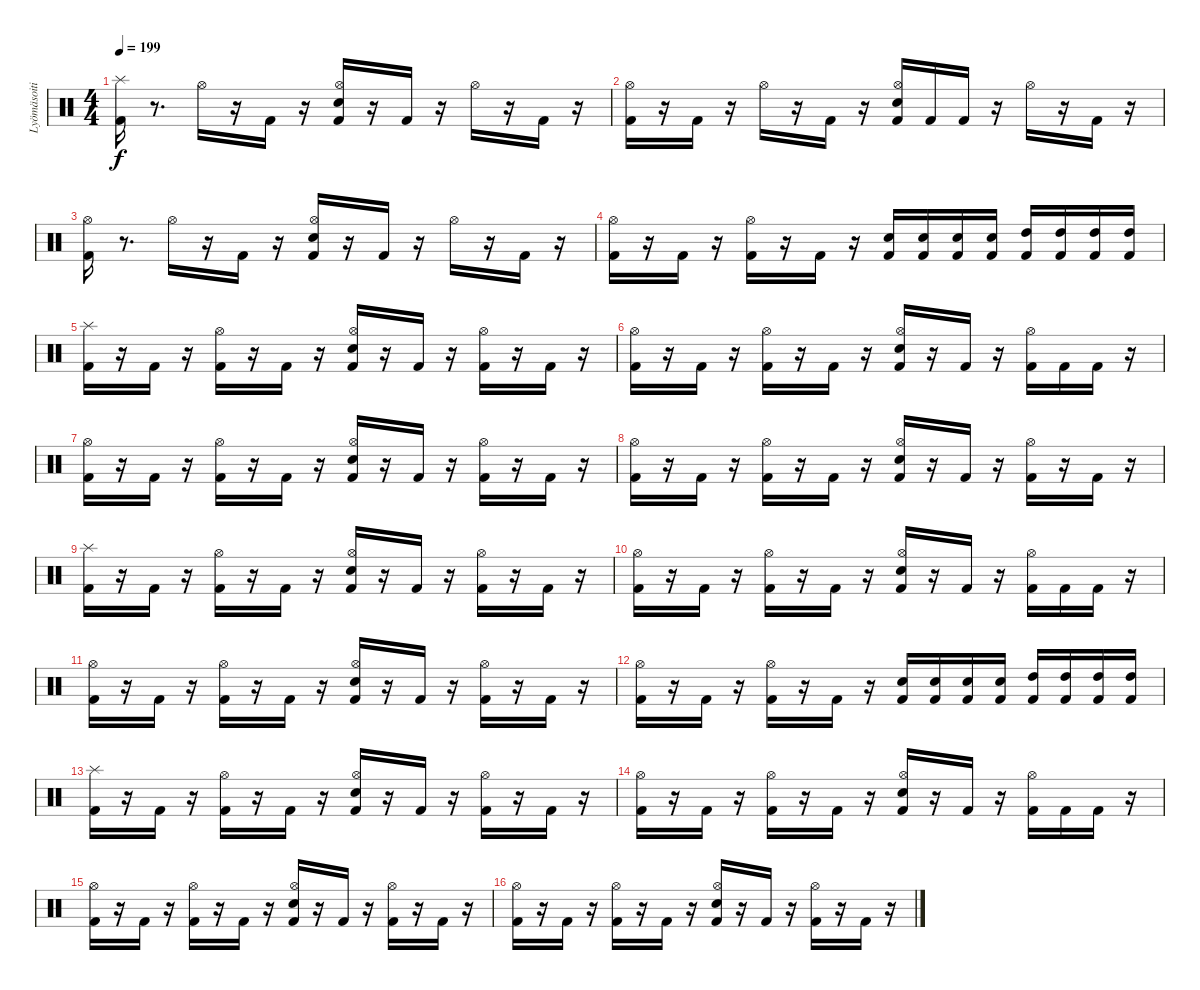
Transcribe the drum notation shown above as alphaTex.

\track ("Lyömäsoitin" "Lyömäsoiti") {instrument percussion}
\staff {score}
\articulation defaults
\ts (4 4)
\tempo 199
\clef neutral
\ks c
("Kick (hit) 2" "Splash (hit)").16{dy f} r.8{d} "Hi-Hat (open)".16 r.16 "Kick (hit) 2".16 r.16 ("Kick (hit) 2" "Hi-Hat (open)" "Snare (hit) 2").16 r.16 "Kick (hit) 2".16 r.16 "Hi-Hat (open)".16 r.16 "Kick (hit) 2".16 r.16 |
("Kick (hit) 2" "Hi-Hat (open)").16 r.16 "Kick (hit) 2".16 r.16 "Hi-Hat (open)".16 r.16 "Kick (hit) 2".16 r.16 ("Kick (hit) 2" "Hi-Hat (open)" "Snare (hit) 2").16 "Kick (hit) 2".16 "Kick (hit) 2".16 r.16 "Hi-Hat (open)".16 r.16 "Kick (hit) 2".16 r.16 |
("Kick (hit) 2" "Hi-Hat (open)").16 r.8{d} "Hi-Hat (open)".16 r.16 "Kick (hit) 2".16 r.16 ("Kick (hit) 2" "Hi-Hat (open)" "Snare (hit) 2").16 r.16 "Kick (hit) 2".16 r.16 "Hi-Hat (open)".16 r.16 "Kick (hit) 2".16 r.16 |
("Kick (hit) 2" "Hi-Hat (open)").16 r.16 "Kick (hit) 2".16 r.16 ("Kick (hit) 2" "Hi-Hat (open)").16 r.16 "Kick (hit) 2".16 r.16 ("Kick (hit) 2" "Snare (hit) 2").16 ("Kick (hit) 2" "Snare (hit) 2").16 ("Kick (hit) 2" "Snare (hit) 2").16 ("Kick (hit) 2" "Snare (hit) 2").16 ("Kick (hit) 2" "High Tom (hit)").16 ("Kick (hit) 2" "High Tom (hit)").16 ("Kick (hit) 2" "High Tom (hit)").16 ("Kick (hit) 2" "High Tom (hit)").16 |
("Kick (hit) 2" "Splash (hit)").16 r.16 "Kick (hit) 2".16 r.16 ("Kick (hit) 2" "Hi-Hat (open)").16 r.16 "Kick (hit) 2".16 r.16 ("Kick (hit) 2" "Hi-Hat (open)" "Snare (hit) 2").16 r.16 "Kick (hit) 2".16 r.16 ("Kick (hit) 2" "Hi-Hat (open)").16 r.16 "Kick (hit) 2".16 r.16 |
("Kick (hit) 2" "Hi-Hat (open)").16 r.16 "Kick (hit) 2".16 r.16 ("Kick (hit) 2" "Hi-Hat (open)").16 r.16 "Kick (hit) 2".16 r.16 ("Kick (hit) 2" "Hi-Hat (open)" "Snare (hit) 2").16 r.16 "Kick (hit) 2".16 r.16 ("Kick (hit) 2" "Hi-Hat (open)").16 "Kick (hit) 2".16 "Kick (hit) 2".16 r.16 |
("Kick (hit) 2" "Hi-Hat (open)").16 r.16 "Kick (hit) 2".16 r.16 ("Kick (hit) 2" "Hi-Hat (open)").16 r.16 "Kick (hit) 2".16 r.16 ("Kick (hit) 2" "Hi-Hat (open)" "Snare (hit) 2").16 r.16 "Kick (hit) 2".16 r.16 ("Kick (hit) 2" "Hi-Hat (open)").16 r.16 "Kick (hit) 2".16 r.16 |
("Kick (hit) 2" "Hi-Hat (open)").16 r.16 "Kick (hit) 2".16 r.16 ("Kick (hit) 2" "Hi-Hat (open)").16 r.16 "Kick (hit) 2".16 r.16 ("Kick (hit) 2" "Hi-Hat (open)" "Snare (hit) 2").16 r.16 "Kick (hit) 2".16 r.16 ("Kick (hit) 2" "Hi-Hat (open)").16 r.16 "Kick (hit) 2".16 r.16 |
("Kick (hit) 2" "Splash (hit)").16 r.16 "Kick (hit) 2".16 r.16 ("Kick (hit) 2" "Hi-Hat (open)").16 r.16 "Kick (hit) 2".16 r.16 ("Kick (hit) 2" "Hi-Hat (open)" "Snare (hit) 2").16 r.16 "Kick (hit) 2".16 r.16 ("Kick (hit) 2" "Hi-Hat (open)").16 r.16 "Kick (hit) 2".16 r.16 |
("Kick (hit) 2" "Hi-Hat (open)").16 r.16 "Kick (hit) 2".16 r.16 ("Kick (hit) 2" "Hi-Hat (open)").16 r.16 "Kick (hit) 2".16 r.16 ("Kick (hit) 2" "Hi-Hat (open)" "Snare (hit) 2").16 r.16 "Kick (hit) 2".16 r.16 ("Kick (hit) 2" "Hi-Hat (open)").16 "Kick (hit) 2".16 "Kick (hit) 2".16 r.16 |
("Kick (hit) 2" "Hi-Hat (open)").16 r.16 "Kick (hit) 2".16 r.16 ("Kick (hit) 2" "Hi-Hat (open)").16 r.16 "Kick (hit) 2".16 r.16 ("Kick (hit) 2" "Hi-Hat (open)" "Snare (hit) 2").16 r.16 "Kick (hit) 2".16 r.16 ("Kick (hit) 2" "Hi-Hat (open)").16 r.16 "Kick (hit) 2".16 r.16 |
("Kick (hit) 2" "Hi-Hat (open)").16 r.16 "Kick (hit) 2".16 r.16 ("Kick (hit) 2" "Hi-Hat (open)").16 r.16 "Kick (hit) 2".16 r.16 ("Kick (hit) 2" "Snare (hit) 2").16 ("Kick (hit) 2" "Snare (hit) 2").16 ("Kick (hit) 2" "Snare (hit) 2").16 ("Kick (hit) 2" "Snare (hit) 2").16 ("Kick (hit) 2" "High Tom (hit)").16 ("Kick (hit) 2" "High Tom (hit)").16 ("Kick (hit) 2" "High Tom (hit)").16 ("Kick (hit) 2" "High Tom (hit)").16 |
("Kick (hit) 2" "Splash (hit)").16 r.16 "Kick (hit) 2".16 r.16 ("Kick (hit) 2" "Hi-Hat (open)").16 r.16 "Kick (hit) 2".16 r.16 ("Kick (hit) 2" "Hi-Hat (open)" "Snare (hit) 2").16 r.16 "Kick (hit) 2".16 r.16 ("Kick (hit) 2" "Hi-Hat (open)").16 r.16 "Kick (hit) 2".16 r.16 |
("Kick (hit) 2" "Hi-Hat (open)").16 r.16 "Kick (hit) 2".16 r.16 ("Kick (hit) 2" "Hi-Hat (open)").16 r.16 "Kick (hit) 2".16 r.16 ("Kick (hit) 2" "Hi-Hat (open)" "Snare (hit) 2").16 r.16 "Kick (hit) 2".16 r.16 ("Kick (hit) 2" "Hi-Hat (open)").16 "Kick (hit) 2".16 "Kick (hit) 2".16 r.16 |
("Kick (hit) 2" "Hi-Hat (open)").16 r.16 "Kick (hit) 2".16 r.16 ("Kick (hit) 2" "Hi-Hat (open)").16 r.16 "Kick (hit) 2".16 r.16 ("Kick (hit) 2" "Hi-Hat (open)" "Snare (hit) 2").16 r.16 "Kick (hit) 2".16 r.16 ("Kick (hit) 2" "Hi-Hat (open)").16 r.16 "Kick (hit) 2".16 r.16 |
("Kick (hit) 2" "Hi-Hat (open)").16 r.16 "Kick (hit) 2".16 r.16 ("Kick (hit) 2" "Hi-Hat (open)").16 r.16 "Kick (hit) 2".16 r.16 ("Kick (hit) 2" "Hi-Hat (open)" "Snare (hit) 2").16 r.16 "Kick (hit) 2".16 r.16 ("Kick (hit) 2" "Hi-Hat (open)").16 r.16 "Kick (hit) 2".16 r.16
